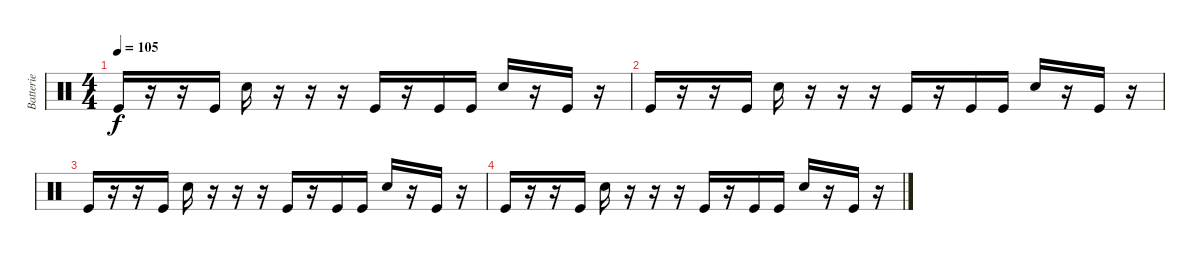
\track ("Batterie" "Batterie") {instrument percussion}
\staff {score}
\articulation defaults
\ts (4 4)
\tempo 105
\clef neutral
\ks c "Kick (hit)".16{dy f}
r.16 r.16 "Kick (hit)".16 "Electric Snare (hit)".16 r.16 r.16 r.16 "Kick (hit)".16 r.16 "Kick (hit)".16 "Kick (hit)".16 "Electric Snare (hit)".16 r.16 "Kick (hit)".16 r.16 |
"Kick (hit)".16 r.16 r.16 "Kick (hit)".16 "Electric Snare (hit)".16 r.16 r.16 r.16 "Kick (hit)".16 r.16 "Kick (hit)".16 "Kick (hit)".16 "Electric Snare (hit)".16 r.16 "Kick (hit)".16 r.16 |
"Kick (hit)".16 r.16 r.16 "Kick (hit)".16 "Electric Snare (hit)".16 r.16 r.16 r.16 "Kick (hit)".16 r.16 "Kick (hit)".16 "Kick (hit)".16 "Electric Snare (hit)".16 r.16 "Kick (hit)".16 r.16 |
"Kick (hit)".16 r.16 r.16 "Kick (hit)".16 "Electric Snare (hit)".16 r.16 r.16 r.16 "Kick (hit)".16 r.16 "Kick (hit)".16 "Kick (hit)".16 "Electric Snare (hit)".16 r.16 "Kick (hit)".16 r.16
